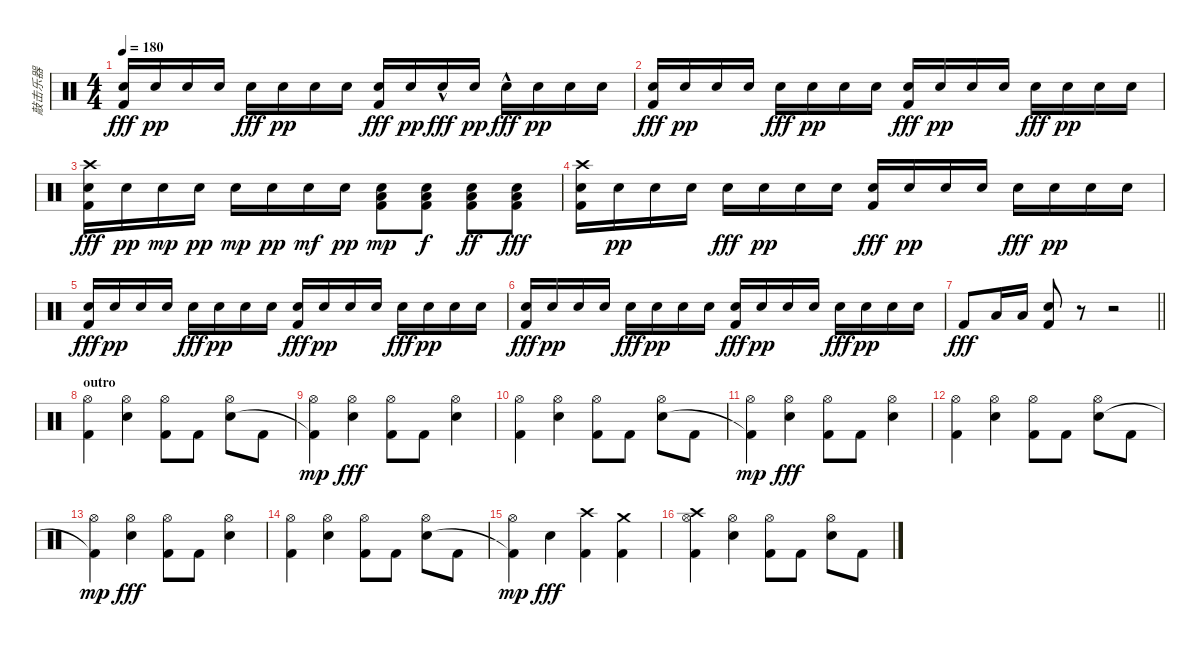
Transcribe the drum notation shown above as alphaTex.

\track ("敲击乐器" "敲击乐器") {instrument percussion}
\staff {score}
\articulation defaults
\ts (4 4)
\tempo 180
\clef neutral
\ks c
("Electric Snare (hit)" "Kick (hit) 2").16{dy fff} "Electric Snare (hit)".16{dy pp} "Electric Snare (hit)".16 "Electric Snare (hit)".16 "Electric Snare (hit)".16{dy fff} "Electric Snare (hit)".16{dy pp} "Electric Snare (hit)".16 "Electric Snare (hit)".16 ("Electric Snare (hit)" "Kick (hit) 2").16{dy fff} "Electric Snare (hit)".16{dy pp} "Electric Snare (hit)"{hac}.16{dy fff} "Electric Snare (hit)".16{dy pp} "Electric Snare (hit)"{hac}.16{dy fff} "Electric Snare (hit)".16{dy pp} "Electric Snare (hit)".16 "Electric Snare (hit)".16 |
("Electric Snare (hit)" "Kick (hit) 2").16{dy fff} "Electric Snare (hit)".16{dy pp} "Electric Snare (hit)".16 "Electric Snare (hit)".16 "Electric Snare (hit)".16{dy fff} "Electric Snare (hit)".16{dy pp} "Electric Snare (hit)".16 "Electric Snare (hit)".16 ("Electric Snare (hit)" "Kick (hit) 2").16{dy fff} "Electric Snare (hit)".16{dy pp} "Electric Snare (hit)".16 "Electric Snare (hit)".16 "Electric Snare (hit)".16{dy fff} "Electric Snare (hit)".16{dy pp} "Electric Snare (hit)".16 "Electric Snare (hit)".16 |
("Crash high (hit)" "Electric Snare (hit)" "Kick (hit) 2").16{dy fff} "Electric Snare (hit)".16{dy pp} "Electric Snare (hit)".16{dy mp} "Electric Snare (hit)".16{dy pp} "Electric Snare (hit)".16{dy mp} "Electric Snare (hit)".16{dy pp} "Electric Snare (hit)".16{dy mf} "Electric Snare (hit)".16{dy pp} ("Low Tom (hit)" "Electric Snare (hit)" "Kick (hit) 2").8{dy mp} ("Low Tom (hit)" "Electric Snare (hit)" "Kick (hit) 2").8{dy f} ("Low Tom (hit)" "Electric Snare (hit)" "Kick (hit) 2").8{dy ff} ("Low Tom (hit)" "Electric Snare (hit)" "Kick (hit) 2").8{dy fff} |
("Crash high (hit)" "Electric Snare (hit)" "Kick (hit) 2").16 "Electric Snare (hit)".16{dy pp} "Electric Snare (hit)".16 "Electric Snare (hit)".16 "Electric Snare (hit)".16{dy fff} "Electric Snare (hit)".16{dy pp} "Electric Snare (hit)".16 "Electric Snare (hit)".16 ("Electric Snare (hit)" "Kick (hit) 2").16{dy fff} "Electric Snare (hit)".16{dy pp} "Electric Snare (hit)".16 "Electric Snare (hit)".16 "Electric Snare (hit)".16{dy fff} "Electric Snare (hit)".16{dy pp} "Electric Snare (hit)".16 "Electric Snare (hit)".16 |
("Electric Snare (hit)" "Kick (hit) 2").16{dy fff} "Electric Snare (hit)".16{dy pp} "Electric Snare (hit)".16 "Electric Snare (hit)".16 "Electric Snare (hit)".16{dy fff} "Electric Snare (hit)".16{dy pp} "Electric Snare (hit)".16 "Electric Snare (hit)".16 ("Electric Snare (hit)" "Kick (hit) 2").16{dy fff} "Electric Snare (hit)".16{dy pp} "Electric Snare (hit)".16 "Electric Snare (hit)".16 "Electric Snare (hit)".16{dy fff} "Electric Snare (hit)".16{dy pp} "Electric Snare (hit)".16 "Electric Snare (hit)".16 |
("Electric Snare (hit)" "Kick (hit) 2").16{dy fff} "Electric Snare (hit)".16{dy pp} "Electric Snare (hit)".16 "Electric Snare (hit)".16 "Electric Snare (hit)".16{dy fff} "Electric Snare (hit)".16{dy pp} "Electric Snare (hit)".16 "Electric Snare (hit)".16 ("Electric Snare (hit)" "Kick (hit) 2").16{dy fff} "Electric Snare (hit)".16{dy pp} "Electric Snare (hit)".16 "Electric Snare (hit)".16 "Electric Snare (hit)".16{dy fff} "Electric Snare (hit)".16{dy pp} "Electric Snare (hit)".16 "Electric Snare (hit)".16 |
\barLineRight lightlight "Kick (hit) 2".8{dy fff} "Low Tom (hit)".16 "Low Tom (hit)".16
("Electric Snare (hit)" "Kick (hit) 2").8 r.8 r.2 |
\section ("" "outro")
("Hi-Hat (open)" "Kick (hit) 2").4 ("Hi-Hat (open)" "Electric Snare (hit)").4 ("Hi-Hat (open)" "Kick (hit) 2").8 "Kick (hit) 2".8 ("Hi-Hat (open)" "Electric Snare (hit)").8 "Kick (hit) 2".8 |
("Hi-Hat (open)" "Kick (hit) 2"{t}).4{dy mp} ("Hi-Hat (open)" "Electric Snare (hit)").4{dy fff} ("Hi-Hat (open)" "Kick (hit) 2").8 "Kick (hit) 2".8 ("Hi-Hat (open)" "Electric Snare (hit)").4 |
("Hi-Hat (open)" "Kick (hit) 2").4 ("Hi-Hat (open)" "Electric Snare (hit)").4 ("Hi-Hat (open)" "Kick (hit) 2").8 "Kick (hit) 2".8 ("Hi-Hat (open)" "Electric Snare (hit)").8 "Kick (hit) 2".8 |
("Hi-Hat (open)" "Kick (hit) 2"{t}).4{dy mp} ("Hi-Hat (open)" "Electric Snare (hit)").4{dy fff} ("Hi-Hat (open)" "Kick (hit) 2").8 "Kick (hit) 2".8 ("Hi-Hat (open)" "Electric Snare (hit)").4 |
("Hi-Hat (open)" "Kick (hit) 2").4 ("Hi-Hat (open)" "Electric Snare (hit)").4 ("Hi-Hat (open)" "Kick (hit) 2").8 "Kick (hit) 2".8 ("Hi-Hat (open)" "Electric Snare (hit)").8 "Kick (hit) 2".8 |
("Hi-Hat (open)" "Kick (hit) 2"{t}).4{dy mp} ("Hi-Hat (open)" "Electric Snare (hit)").4{dy fff} ("Hi-Hat (open)" "Kick (hit) 2").8 "Kick (hit) 2".8 ("Hi-Hat (open)" "Electric Snare (hit)").4 |
("Hi-Hat (open)" "Kick (hit) 2").4 ("Hi-Hat (open)" "Electric Snare (hit)").4 ("Hi-Hat (open)" "Kick (hit) 2").8 "Kick (hit) 2".8 ("Hi-Hat (open)" "Electric Snare (hit)").8 "Kick (hit) 2".8 |
("Hi-Hat (open)" "Kick (hit) 2"{t}).4{dy mp} "Electric Snare (hit)".4{dy fff} ("Crash high (hit)" "Kick (hit) 2").4 ("Crash medium (hit)" "Kick (hit) 2").4 |
("Crash high (hit)" "Hi-Hat (open)" "Kick (hit) 2").4 ("Hi-Hat (open)" "Electric Snare (hit)").4 ("Hi-Hat (open)" "Kick (hit) 2").8 "Kick (hit) 2".8 ("Hi-Hat (open)" "Electric Snare (hit)").8 "Kick (hit) 2".8
